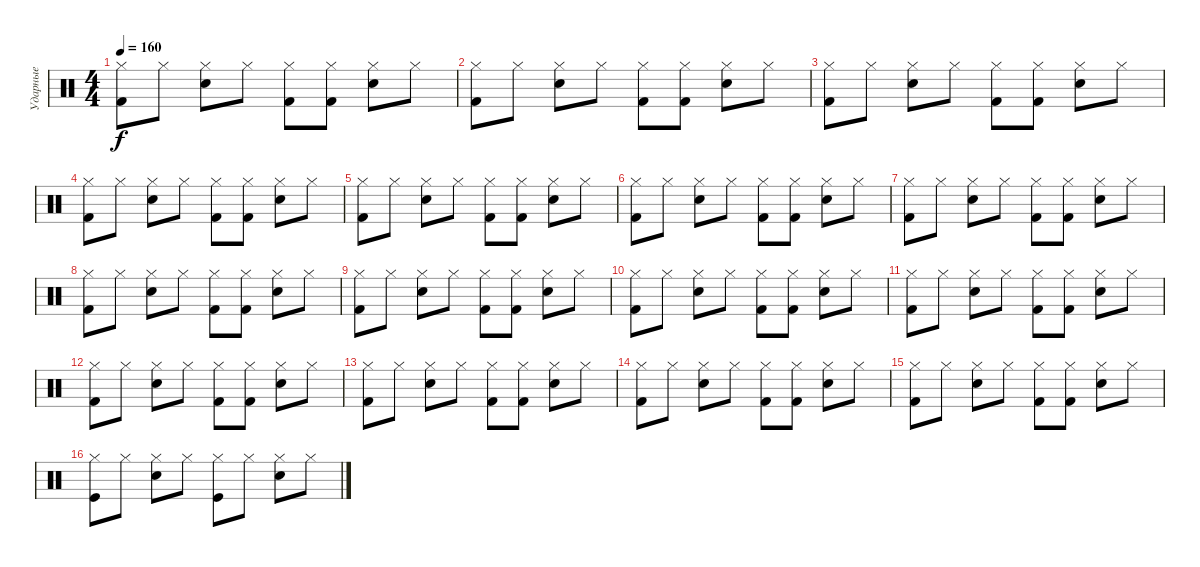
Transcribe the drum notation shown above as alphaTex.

\track ("Ударные" "Ударные") {instrument percussion}
\staff {score}
\articulation defaults
\ts (4 4)
\tempo 160
\clef neutral
\ks c
("Kick (hit) 2" "Hi-Hat (closed)").8{dy f} "Hi-Hat (closed)".8 ("Electric Snare (hit)" "Hi-Hat (closed)").8 "Hi-Hat (closed)".8 ("Kick (hit) 2" "Hi-Hat (closed)").8 ("Kick (hit) 2" "Hi-Hat (closed)").8 ("Electric Snare (hit)" "Hi-Hat (closed)").8 "Hi-Hat (closed)".8 |
("Kick (hit) 2" "Hi-Hat (closed)").8 "Hi-Hat (closed)".8 ("Electric Snare (hit)" "Hi-Hat (closed)").8 "Hi-Hat (closed)".8 ("Kick (hit) 2" "Hi-Hat (closed)").8 ("Kick (hit) 2" "Hi-Hat (closed)").8 ("Electric Snare (hit)" "Hi-Hat (closed)").8 "Hi-Hat (closed)".8 |
("Kick (hit) 2" "Hi-Hat (closed)").8 "Hi-Hat (closed)".8 ("Electric Snare (hit)" "Hi-Hat (closed)").8 "Hi-Hat (closed)".8 ("Kick (hit) 2" "Hi-Hat (closed)").8 ("Kick (hit) 2" "Hi-Hat (closed)").8 ("Electric Snare (hit)" "Hi-Hat (closed)").8 "Hi-Hat (closed)".8 |
("Kick (hit) 2" "Hi-Hat (closed)").8 "Hi-Hat (closed)".8 ("Electric Snare (hit)" "Hi-Hat (closed)").8 "Hi-Hat (closed)".8 ("Kick (hit) 2" "Hi-Hat (closed)").8 ("Kick (hit) 2" "Hi-Hat (closed)").8 ("Electric Snare (hit)" "Hi-Hat (closed)").8 "Hi-Hat (closed)".8 |
("Kick (hit) 2" "Hi-Hat (closed)").8 "Hi-Hat (closed)".8 ("Electric Snare (hit)" "Hi-Hat (closed)").8 "Hi-Hat (closed)".8 ("Kick (hit) 2" "Hi-Hat (closed)").8 ("Kick (hit) 2" "Hi-Hat (closed)").8 ("Electric Snare (hit)" "Hi-Hat (closed)").8 "Hi-Hat (closed)".8 |
("Kick (hit) 2" "Hi-Hat (closed)").8 "Hi-Hat (closed)".8 ("Electric Snare (hit)" "Hi-Hat (closed)").8 "Hi-Hat (closed)".8 ("Kick (hit) 2" "Hi-Hat (closed)").8 ("Kick (hit) 2" "Hi-Hat (closed)").8 ("Electric Snare (hit)" "Hi-Hat (closed)").8 "Hi-Hat (closed)".8 |
("Kick (hit) 2" "Hi-Hat (closed)").8 "Hi-Hat (closed)".8 ("Electric Snare (hit)" "Hi-Hat (closed)").8 "Hi-Hat (closed)".8 ("Kick (hit) 2" "Hi-Hat (closed)").8 ("Kick (hit) 2" "Hi-Hat (closed)").8 ("Electric Snare (hit)" "Hi-Hat (closed)").8 "Hi-Hat (closed)".8 |
("Kick (hit) 2" "Hi-Hat (closed)").8 "Hi-Hat (closed)".8 ("Electric Snare (hit)" "Hi-Hat (closed)").8 "Hi-Hat (closed)".8 ("Kick (hit) 2" "Hi-Hat (closed)").8 ("Kick (hit) 2" "Hi-Hat (closed)").8 ("Electric Snare (hit)" "Hi-Hat (closed)").8 "Hi-Hat (closed)".8 |
("Kick (hit) 2" "Hi-Hat (closed)").8 "Hi-Hat (closed)".8 ("Electric Snare (hit)" "Hi-Hat (closed)").8 "Hi-Hat (closed)".8 ("Kick (hit) 2" "Hi-Hat (closed)").8 ("Kick (hit) 2" "Hi-Hat (closed)").8 ("Electric Snare (hit)" "Hi-Hat (closed)").8 "Hi-Hat (closed)".8 |
("Kick (hit) 2" "Hi-Hat (closed)").8 "Hi-Hat (closed)".8 ("Electric Snare (hit)" "Hi-Hat (closed)").8 "Hi-Hat (closed)".8 ("Kick (hit) 2" "Hi-Hat (closed)").8 ("Kick (hit) 2" "Hi-Hat (closed)").8 ("Electric Snare (hit)" "Hi-Hat (closed)").8 "Hi-Hat (closed)".8 |
("Kick (hit) 2" "Hi-Hat (closed)").8 "Hi-Hat (closed)".8 ("Electric Snare (hit)" "Hi-Hat (closed)").8 "Hi-Hat (closed)".8 ("Kick (hit) 2" "Hi-Hat (closed)").8 ("Kick (hit) 2" "Hi-Hat (closed)").8 ("Electric Snare (hit)" "Hi-Hat (closed)").8 "Hi-Hat (closed)".8 |
("Kick (hit) 2" "Hi-Hat (closed)").8 "Hi-Hat (closed)".8 ("Electric Snare (hit)" "Hi-Hat (closed)").8 "Hi-Hat (closed)".8 ("Kick (hit) 2" "Hi-Hat (closed)").8 ("Kick (hit) 2" "Hi-Hat (closed)").8 ("Electric Snare (hit)" "Hi-Hat (closed)").8 "Hi-Hat (closed)".8 |
("Kick (hit) 2" "Hi-Hat (closed)").8 "Hi-Hat (closed)".8 ("Electric Snare (hit)" "Hi-Hat (closed)").8 "Hi-Hat (closed)".8 ("Kick (hit) 2" "Hi-Hat (closed)").8 ("Kick (hit) 2" "Hi-Hat (closed)").8 ("Electric Snare (hit)" "Hi-Hat (closed)").8 "Hi-Hat (closed)".8 |
("Kick (hit) 2" "Hi-Hat (closed)").8 "Hi-Hat (closed)".8 ("Electric Snare (hit)" "Hi-Hat (closed)").8 "Hi-Hat (closed)".8 ("Kick (hit) 2" "Hi-Hat (closed)").8 ("Kick (hit) 2" "Hi-Hat (closed)").8 ("Electric Snare (hit)" "Hi-Hat (closed)").8 "Hi-Hat (closed)".8 |
("Kick (hit) 2" "Hi-Hat (closed)").8 "Hi-Hat (closed)".8 ("Electric Snare (hit)" "Hi-Hat (closed)").8 "Hi-Hat (closed)".8 ("Kick (hit) 2" "Hi-Hat (closed)").8 ("Kick (hit) 2" "Hi-Hat (closed)").8 ("Electric Snare (hit)" "Hi-Hat (closed)").8 "Hi-Hat (closed)".8 |
("Kick (hit)" "Hi-Hat (closed)").8 "Hi-Hat (closed)".8 ("Electric Snare (hit)" "Hi-Hat (closed)").8 "Hi-Hat (closed)".8 ("Kick (hit)" "Hi-Hat (closed)").8 "Hi-Hat (closed)".8 ("Electric Snare (hit)" "Hi-Hat (closed)").8 "Hi-Hat (closed)".8
